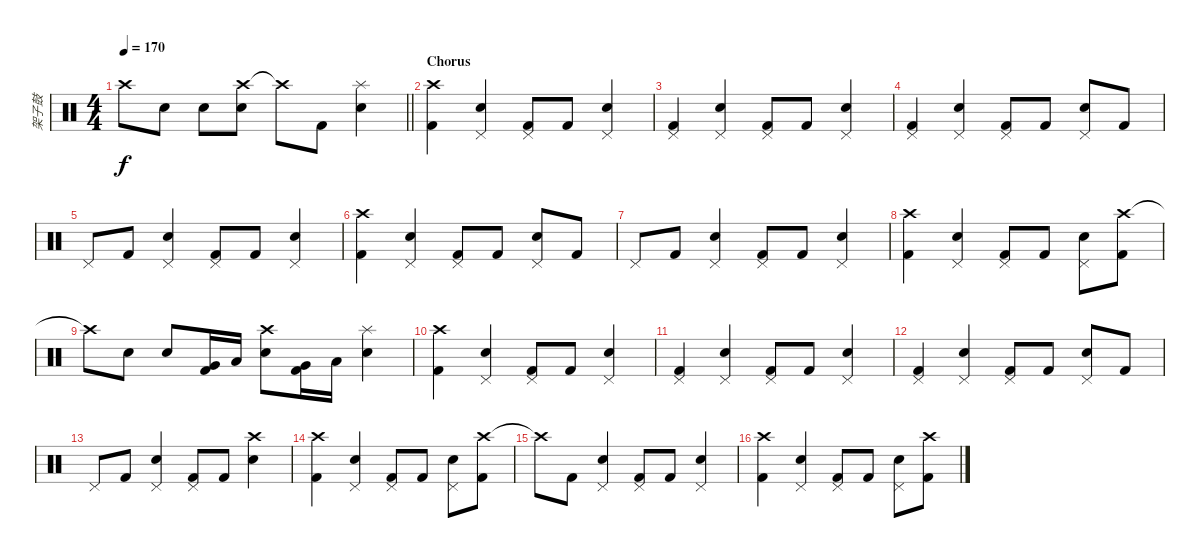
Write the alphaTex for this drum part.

\track ("架子鼓" "架子鼓") {instrument percussion}
\staff {score}
\articulation defaults
\ts (4 4)
\tempo 170
\clef neutral
\barLineRight lightlight
\ks c "Crash high (hit)"{t}.8{dy f} "Snare (hit) 2".8 "Snare (hit) 2".8
("Crash high (hit)" "Snare (hit) 2").8 "Crash high (hit)"{t}.8 "Kick (hit) 2".8 ("Splash (hit)" "Snare (hit) 2").4 |
\section ("" "Chorus")
("Crash high (hit)" "Kick (hit) 2").4 ("Pedal Hi-Hat (hit)" "Snare (hit) 2").4 ("Pedal Hi-Hat (hit)" "Kick (hit) 2").8 "Kick (hit) 2".8 ("Pedal Hi-Hat (hit)" "Snare (hit) 2").4 |
("Pedal Hi-Hat (hit)" "Kick (hit) 2").4 ("Pedal Hi-Hat (hit)" "Snare (hit) 2").4 ("Pedal Hi-Hat (hit)" "Kick (hit) 2").8 "Kick (hit) 2".8 ("Pedal Hi-Hat (hit)" "Snare (hit) 2").4 |
("Pedal Hi-Hat (hit)" "Kick (hit) 2").4 ("Pedal Hi-Hat (hit)" "Snare (hit) 2").4 ("Pedal Hi-Hat (hit)" "Kick (hit) 2").8 "Kick (hit) 2".8 ("Pedal Hi-Hat (hit)" "Snare (hit) 2").8 "Kick (hit) 2".8 |
"Pedal Hi-Hat (hit)".8 "Kick (hit) 2".8 ("Pedal Hi-Hat (hit)" "Snare (hit) 2").4 ("Pedal Hi-Hat (hit)" "Kick (hit) 2").8 "Kick (hit) 2".8 ("Pedal Hi-Hat (hit)" "Snare (hit) 2").4 |
("Crash high (hit)" "Kick (hit) 2").4 ("Pedal Hi-Hat (hit)" "Snare (hit) 2").4 ("Pedal Hi-Hat (hit)" "Kick (hit) 2").8 "Kick (hit) 2".8 ("Pedal Hi-Hat (hit)" "Snare (hit) 2").8 "Kick (hit) 2".8 |
"Pedal Hi-Hat (hit)".8 "Kick (hit) 2".8 ("Pedal Hi-Hat (hit)" "Snare (hit) 2").4 ("Pedal Hi-Hat (hit)" "Kick (hit) 2").8 "Kick (hit) 2".8 ("Pedal Hi-Hat (hit)" "Snare (hit) 2").4 |
("Crash high (hit)" "Kick (hit) 2").4 ("Pedal Hi-Hat (hit)" "Snare (hit) 2").4 ("Pedal Hi-Hat (hit)" "Kick (hit) 2").8 "Kick (hit) 2".8 ("Pedal Hi-Hat (hit)" "Snare (hit) 2").8 ("Crash high (hit)" "Kick (hit) 2").8 |
"Crash high (hit)"{t}.8 "Snare (hit) 2".8 "Snare (hit) 2".8 ("Very Low Tom (hit)" "Kick (hit) 2").16 "Low Tom (hit)".16 ("Crash high (hit)" "Snare (hit) 2").8 ("Very Low Tom (hit)" "Kick (hit) 2").16 "Low Tom (hit)".16 ("Splash (hit)" "Snare (hit) 2").4 |
("Crash high (hit)" "Kick (hit) 2").4 ("Pedal Hi-Hat (hit)" "Snare (hit) 2").4 ("Pedal Hi-Hat (hit)" "Kick (hit) 2").8 "Kick (hit) 2".8 ("Pedal Hi-Hat (hit)" "Snare (hit) 2").4 |
("Pedal Hi-Hat (hit)" "Kick (hit) 2").4 ("Pedal Hi-Hat (hit)" "Snare (hit) 2").4 ("Pedal Hi-Hat (hit)" "Kick (hit) 2").8 "Kick (hit) 2".8 ("Pedal Hi-Hat (hit)" "Snare (hit) 2").4 |
("Pedal Hi-Hat (hit)" "Kick (hit) 2").4 ("Pedal Hi-Hat (hit)" "Snare (hit) 2").4 ("Pedal Hi-Hat (hit)" "Kick (hit) 2").8 "Kick (hit) 2".8 ("Pedal Hi-Hat (hit)" "Snare (hit) 2").8 "Kick (hit) 2".8 |
"Pedal Hi-Hat (hit)".8 "Kick (hit) 2".8 ("Pedal Hi-Hat (hit)" "Snare (hit) 2").4 ("Pedal Hi-Hat (hit)" "Kick (hit) 2").8 "Kick (hit) 2".8 ("Crash high (hit)" "Snare (hit) 2").4 |
("Crash high (hit)" "Kick (hit) 2").4 ("Pedal Hi-Hat (hit)" "Snare (hit) 2").4 ("Pedal Hi-Hat (hit)" "Kick (hit) 2").8 "Kick (hit) 2".8 ("Pedal Hi-Hat (hit)" "Snare (hit) 2").8 ("Crash high (hit)" "Kick (hit) 2").8 |
"Crash high (hit)"{t}.8 "Kick (hit) 2".8 ("Pedal Hi-Hat (hit)" "Snare (hit) 2").4 ("Pedal Hi-Hat (hit)" "Kick (hit) 2").8 "Kick (hit) 2".8 ("Pedal Hi-Hat (hit)" "Snare (hit) 2").4 |
("Crash high (hit)" "Kick (hit) 2").4 ("Pedal Hi-Hat (hit)" "Snare (hit) 2").4 ("Pedal Hi-Hat (hit)" "Kick (hit) 2").8 "Kick (hit) 2".8 ("Pedal Hi-Hat (hit)" "Snare (hit) 2").8 ("Crash high (hit)" "Kick (hit) 2").8
